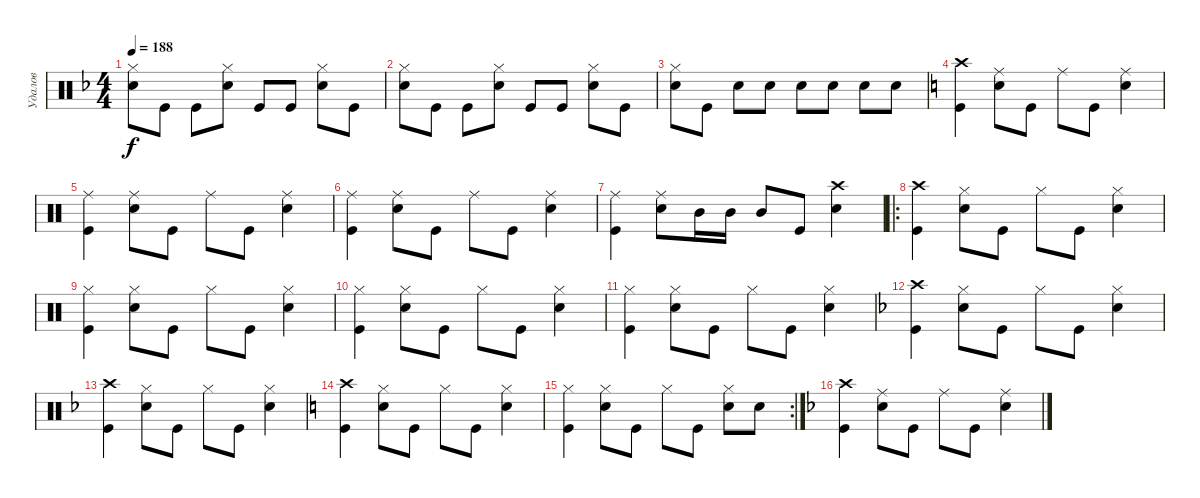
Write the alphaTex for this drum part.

\track ("Удалов" "Удалов") {instrument percussion}
\staff {score}
\articulation defaults
\ts (4 4)
\tempo 188
\clef neutral
\ks f
("Hi-Hat (closed)" "Electric Snare (hit)").8{dy f} "Kick (hit)".8 "Kick (hit)".8 ("Hi-Hat (closed)" "Electric Snare (hit)").8 "Kick (hit)".8 "Kick (hit)".8 ("Hi-Hat (closed)" "Electric Snare (hit)").8 "Kick (hit)".8 |
("Hi-Hat (closed)" "Electric Snare (hit)").8 "Kick (hit)".8 "Kick (hit)".8 ("Hi-Hat (closed)" "Electric Snare (hit)").8 "Kick (hit)".8 "Kick (hit)".8 ("Hi-Hat (closed)" "Electric Snare (hit)").8 "Kick (hit)".8 |
("Hi-Hat (closed)" "Electric Snare (hit)").8 "Kick (hit)".8 "Electric Snare (hit)".8 "Electric Snare (hit)".8 "Electric Snare (hit)".8 "Electric Snare (hit)".8 "Electric Snare (hit)".8 "Electric Snare (hit)".8 |
\ks c
("Crash high (hit)" "Kick (hit)").4 ("Ride (middle)" "Electric Snare (hit)").8 "Kick (hit)".8 "Ride (middle)".8 "Kick (hit)".8 ("Ride (middle)" "Electric Snare (hit)").4 |
("Ride (middle)" "Kick (hit)").4 ("Ride (middle)" "Electric Snare (hit)").8 "Kick (hit)".8 "Ride (middle)".8 "Kick (hit)".8 ("Ride (middle)" "Electric Snare (hit)").4 |
("Ride (middle)" "Kick (hit)").4 ("Ride (middle)" "Electric Snare (hit)").8 "Kick (hit)".8 "Ride (middle)".8 "Kick (hit)".8 ("Ride (middle)" "Electric Snare (hit)").4 |
("Ride (middle)" "Kick (hit)").4 ("Ride (middle)" "Electric Snare (hit)").8 "Mid Tom (hit)".16 "Mid Tom (hit)".16 "Mid Tom (hit)".8 "Kick (hit)".8 ("Crash high (hit)" "Electric Snare (hit)").4 |
\ro
("Crash high (hit)" "Kick (hit)").4 ("Hi-Hat (closed)" "Electric Snare (hit)").8 "Kick (hit)".8 "Hi-Hat (closed)".8 "Kick (hit)".8 ("Hi-Hat (closed)" "Electric Snare (hit)").4 |
("Hi-Hat (closed)" "Kick (hit)").4 ("Hi-Hat (closed)" "Electric Snare (hit)").8 "Kick (hit)".8 "Hi-Hat (closed)".8 "Kick (hit)".8 ("Hi-Hat (closed)" "Electric Snare (hit)").4 |
("Hi-Hat (closed)" "Kick (hit)").4 ("Hi-Hat (closed)" "Electric Snare (hit)").8 "Kick (hit)".8 "Hi-Hat (closed)".8 "Kick (hit)".8 ("Hi-Hat (closed)" "Electric Snare (hit)").4 |
("Hi-Hat (closed)" "Kick (hit)").4 ("Hi-Hat (closed)" "Electric Snare (hit)").8 "Kick (hit)".8 "Hi-Hat (closed)".8 "Kick (hit)".8 ("Hi-Hat (closed)" "Electric Snare (hit)").4 |
\ks f
("Crash high (hit)" "Kick (hit)").4 ("Hi-Hat (closed)" "Electric Snare (hit)").8 "Kick (hit)".8 "Hi-Hat (closed)".8 "Kick (hit)".8 ("Hi-Hat (closed)" "Electric Snare (hit)").4 |
("Crash high (hit)" "Kick (hit)").4 ("Hi-Hat (closed)" "Electric Snare (hit)").8 "Kick (hit)".8 "Hi-Hat (closed)".8 "Kick (hit)".8 ("Hi-Hat (closed)" "Electric Snare (hit)").4 |
\ks c
("Crash high (hit)" "Kick (hit)").4 ("Hi-Hat (closed)" "Electric Snare (hit)").8 "Kick (hit)".8 "Hi-Hat (closed)".8 "Kick (hit)".8 ("Hi-Hat (closed)" "Electric Snare (hit)").4 |
\rc 2
("Hi-Hat (closed)" "Kick (hit)").4 ("Hi-Hat (closed)" "Electric Snare (hit)").8 "Kick (hit)".8 "Hi-Hat (closed)".8 "Kick (hit)".8 ("Hi-Hat (closed)" "Electric Snare (hit)").8 "Electric Snare (hit)".8 |
\ks f
("Crash high (hit)" "Kick (hit)").4 ("Ride (middle)" "Electric Snare (hit)").8 "Kick (hit)".8 "Ride (middle)".8 "Kick (hit)".8 ("Ride (middle)" "Electric Snare (hit)").4
